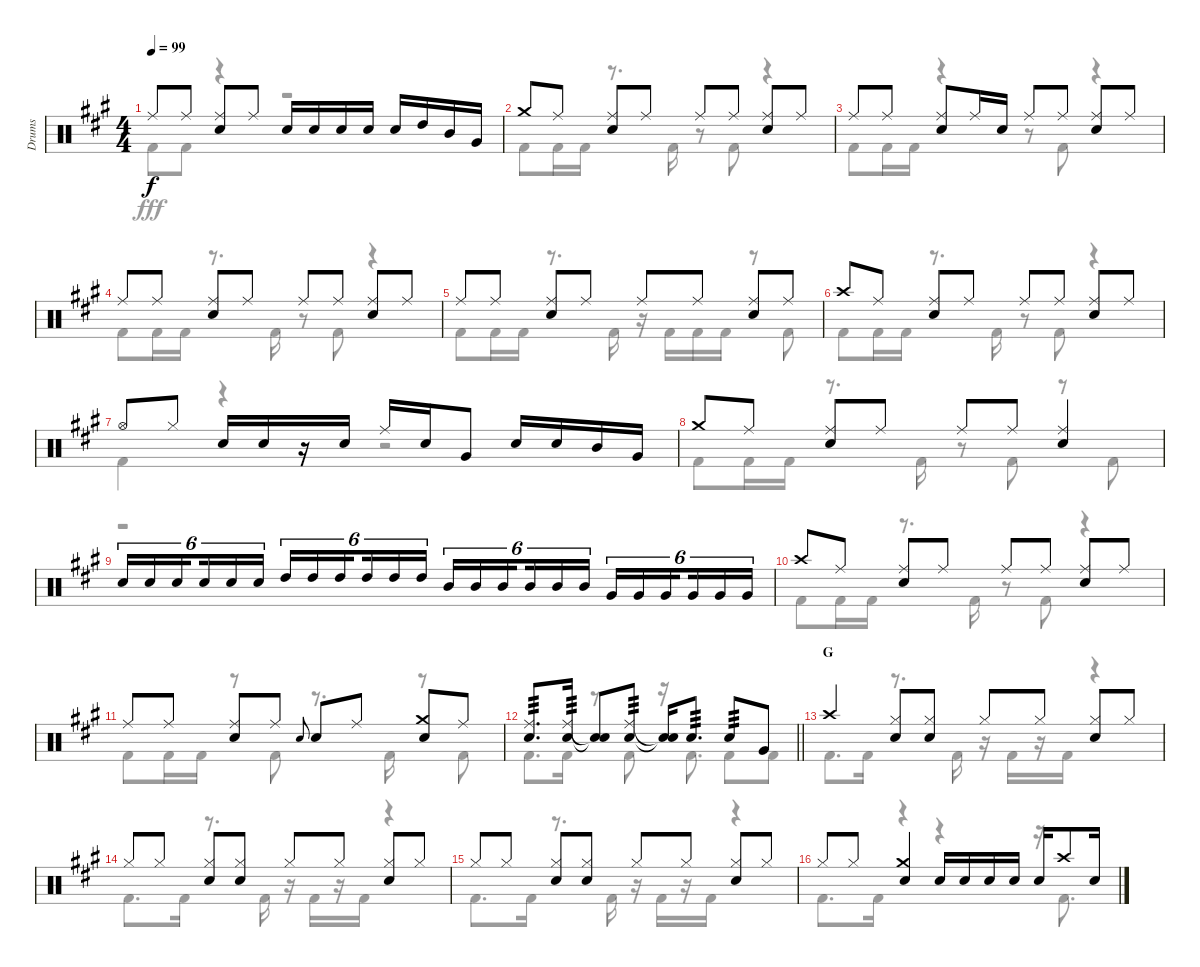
\track ("Drums" "Drums") {instrument percussion}
\staff {score}
\articulation defaults
\voice
\ts (4 4)
\tempo 99
\clef neutral
\ks a "Ride (middle)".8{dy f} "Ride (middle)".8
("Ride (middle)" "Snare (hit) 2").8 "Ride (middle)".8 "Snare (hit) 2".16 "Snare (hit) 2".16 "Snare (hit) 2".16 "Snare (hit) 2".16 "Snare (hit) 2".16 "High Tom (hit)".16 "Mid Tom (hit)".16 "Very Low Tom (hit)".16 |
"Crash medium (hit)".8 "Ride (middle)".8 ("Ride (middle)" "Snare (hit) 2").8 "Ride (middle)".8 "Ride (middle)".8 "Ride (middle)".8 ("Ride (middle)" "Snare (hit) 2").8 "Ride (middle)".8 |
"Ride (middle)".8 "Ride (middle)".8 ("Ride (middle)" "Snare (hit) 2").8 "Ride (middle)".16 "Snare (hit) 2".16 "Ride (middle)".8 "Ride (middle)".8 ("Ride (middle)" "Snare (hit) 2").8 "Ride (middle)".8 |
"Ride (middle)".8 "Ride (middle)".8 ("Ride (middle)" "Snare (hit) 2").8 "Ride (middle)".8 "Ride (middle)".8 "Ride (middle)".8 ("Ride (middle)" "Snare (hit) 2").8 "Ride (middle)".8 |
"Ride (middle)".8 "Ride (middle)".8 ("Ride (middle)" "Snare (hit) 2").8 "Ride (middle)".8 "Ride (middle)".8 "Ride (middle)".8 ("Ride (middle)" "Snare (hit) 2").8 "Ride (middle)".8 |
"Crash high (hit)".8 "Ride (middle)".8 ("Ride (middle)" "Snare (hit) 2").8 "Ride (middle)".8 "Ride (middle)".8 "Ride (middle)".8 ("Ride (middle)" "Snare (hit) 2").8 "Ride (middle)".8 |
"Hi-Hat (open)".8 "Hi-Hat (closed)".8 "Snare (hit) 2".16 "Snare (hit) 2".16 r.16 "Snare (hit) 2".16 "Ride (middle)".16 "Snare (hit) 2".16 "Very Low Tom (hit)".8 "Snare (hit) 2".16 "Snare (hit) 2".16 "Mid Tom (hit)".16 "Very Low Tom (hit)".16 |
"Crash medium (hit)".8 "Ride (middle)".8 ("Ride (middle)" "Snare (hit) 2").8 "Ride (middle)".8 "Ride (middle)".8 "Ride (middle)".8 ("Ride (middle)" "Snare (hit) 2").4 |
"Snare (hit) 2".16{tu (6 4)} "Snare (hit) 2".16{tu (6 4)} "Snare (hit) 2".16{tu (6 4) beam splitsecondary} "Snare (hit) 2".16{tu (6 4)} "Snare (hit) 2".16{tu (6 4)} "Snare (hit) 2".16{tu (6 4)} "High Tom (hit)".16{tu (6 4)} "High Tom (hit)".16{tu (6 4)} "High Tom (hit)".16{tu (6 4) beam splitsecondary} "High Tom (hit)".16{tu (6 4)} "High Tom (hit)".16{tu (6 4)} "High Tom (hit)".16{tu (6 4)} "Mid Tom (hit)".16{tu (6 4)} "Mid Tom (hit)".16{tu (6 4)} "Mid Tom (hit)".16{tu (6 4) beam splitsecondary} "Mid Tom (hit)".16{tu (6 4)} "Mid Tom (hit)".16{tu (6 4)} "Mid Tom (hit)".16{tu (6 4)} "Very Low Tom (hit)".16{tu (6 4)} "Very Low Tom (hit)".16{tu (6 4)} "Very Low Tom (hit)".16{tu (6 4) beam splitsecondary} "Very Low Tom (hit)".16{tu (6 4)} "Very Low Tom (hit)".16{tu (6 4)} "Very Low Tom (hit)".16{tu (6 4)} |
"Crash high (hit)".8 "Ride (middle)".8 ("Ride (middle)" "Snare (hit) 2").8 "Ride (middle)".8 "Ride (middle)".8 "Ride (middle)".8 ("Ride (middle)" "Snare (hit) 2").8 "Ride (middle)".8 |
"Ride (middle)".8 "Ride (middle)".8 ("Ride (middle)" "Snare (hit) 2").8 "Ride (middle)".8 "Snare (hit) 2".8{gr onbeat} "Snare (hit) 2".8 "Ride (middle)".8 ("Crash medium (hit)" "Snare (hit) 2").8 "Ride (middle)".8 |
\barLineRight lightlight
("Ride (middle)" "Snare (hit) 2").8{d tp 3} ("Ride (middle)" "Snare (hit) 2").16{tp 3} ("Snare (hit)"{t} "Snare (hit)"{t}).8 ("Ride (middle)" "Snare (hit) 2").8{tp 3} ("Snare (hit)"{t} "Snare (hit)"{t}).16 "Snare (hit) 2".8{d tp 3} "Snare (hit) 2".8{tp 3} "Very Low Tom (hit)".8 |
\section ("" "G")
"Crash high (hit)".4 ("Hi-Hat (closed)" "Snare (hit) 2").8 ("Hi-Hat (closed)" "Snare (hit) 2").8 "Hi-Hat (closed)".8 "Hi-Hat (closed)".8 ("Hi-Hat (closed)" "Snare (hit) 2").8 "Hi-Hat (closed)".8 |
"Hi-Hat (closed)".8 "Hi-Hat (closed)".8 ("Hi-Hat (closed)" "Snare (hit) 2").8 ("Hi-Hat (closed)" "Snare (hit) 2").8 "Hi-Hat (closed)".8 "Hi-Hat (closed)".8 ("Hi-Hat (closed)" "Snare (hit) 2").8 "Hi-Hat (closed)".8 |
"Hi-Hat (closed)".8 "Hi-Hat (closed)".8 ("Hi-Hat (closed)" "Snare (hit) 2").8 ("Hi-Hat (closed)" "Snare (hit) 2").8 "Hi-Hat (closed)".8 "Hi-Hat (closed)".8 ("Hi-Hat (closed)" "Snare (hit) 2").8 "Hi-Hat (closed)".8 |
"Hi-Hat (closed)".8 "Hi-Hat (closed)".8 ("Crash medium (hit)" "Snare (hit) 2").4 "Snare (hit) 2".16 "Snare (hit) 2".16 "Snare (hit) 2".16 "Snare (hit) 2".16 "Snare (hit) 2".16 "Crash high (hit)".8 "Snare (hit) 2".16
\voice
\clef neutral
\ottava regular
\simile none
\ks a "Kick (hit) 2".8{dy fff} "Kick (hit) 2".8
r.4 r.2 |
"Kick (hit) 2".8 "Kick (hit) 2".16 "Kick (hit) 2".16 r.8{d} "Kick (hit) 2".16 r.8 "Kick (hit) 2".8 r.4 |
"Kick (hit) 2".8 "Kick (hit) 2".16 "Kick (hit) 2".16 r.4 r.8 "Kick (hit) 2".8 r.4 |
"Kick (hit) 2".8 "Kick (hit) 2".16 "Kick (hit) 2".16 r.8{d} "Kick (hit) 2".16 r.8 "Kick (hit) 2".8 r.4 |
"Kick (hit) 2".8 "Kick (hit) 2".16 "Kick (hit) 2".16 r.8{d} "Kick (hit) 2".16 r.16 "Kick (hit) 2".16 "Kick (hit) 2".16 "Kick (hit) 2".16 r.8 "Kick (hit) 2".8 |
"Kick (hit) 2".8 "Kick (hit) 2".16 "Kick (hit) 2".16 r.8{d} "Kick (hit) 2".16 r.8 "Kick (hit) 2".8 r.4 |
"Kick (hit) 2".4 r.4 r.2 |
"Kick (hit) 2".8 "Kick (hit) 2".16 "Kick (hit) 2".16 r.8{d} "Kick (hit) 2".16 r.8 "Kick (hit) 2".8 r.8 "Kick (hit) 2".8 |
r.1 |
"Kick (hit) 2".8 "Kick (hit) 2".16 "Kick (hit) 2".16 r.8{d} "Kick (hit) 2".16 r.8 "Kick (hit) 2".8 r.4 |
"Kick (hit) 2".8 "Kick (hit) 2".16 "Kick (hit) 2".16 r.8 "Kick (hit) 2".8 r.8{d} "Kick (hit) 2".16 r.8 "Kick (hit) 2".8 |
\barLineRight lightlight "Kick (hit) 2".8{d} "Kick (hit) 2".16
r.8 "Kick (hit) 2".8 r.16 "Kick (hit) 2".8{d} "Kick (hit) 2".8 "Kick (hit) 2".8 |
"Kick (hit) 2".8{d} "Kick (hit) 2".16 r.8{d} "Kick (hit) 2".16 r.16 "Kick (hit) 2".16 r.16 "Kick (hit) 2".16 r.4 |
"Kick (hit) 2".8{d} "Kick (hit) 2".16 r.8{d} "Kick (hit) 2".16 r.16 "Kick (hit) 2".16 r.16 "Kick (hit) 2".16 r.4 |
"Kick (hit) 2".8{d} "Kick (hit) 2".16 r.8{d} "Kick (hit) 2".16 r.16 "Kick (hit) 2".16 r.16 "Kick (hit) 2".16 r.4 |
"Kick (hit) 2".8{d} "Kick (hit) 2".16 r.4 r.4 r.16 "Kick (hit) 2".8{d}
